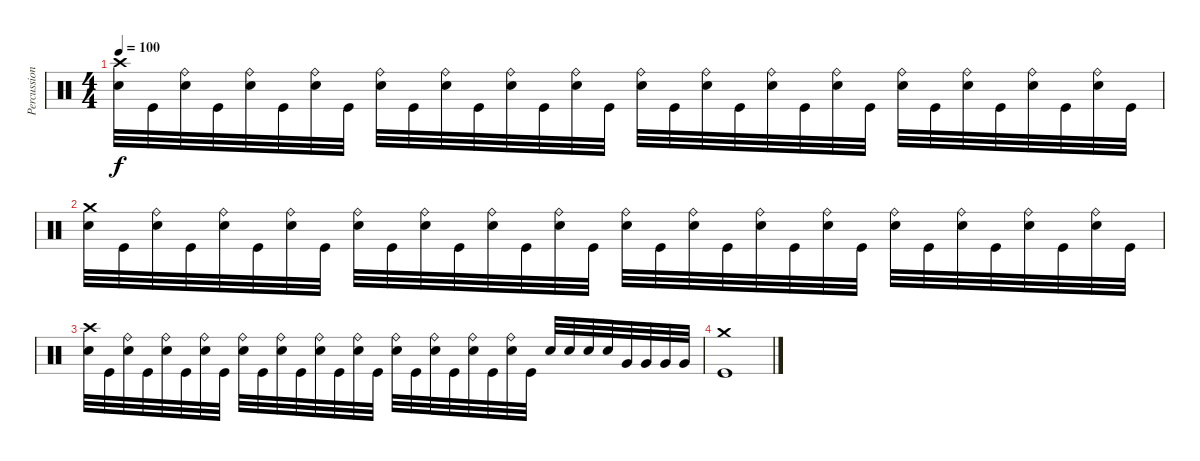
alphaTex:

\track ("Percussion" "Percussion") {instrument percussion}
\staff {score}
\articulation defaults
\ts (4 4)
\tempo 100
\clef neutral
\ks c
("Crash high (hit)" "Electric Snare (hit)").32{dy f} "Kick (hit)".32 ("Ride (bell)" "Electric Snare (hit)").32 "Kick (hit)".32 ("Ride (bell)" "Electric Snare (hit)").32 "Kick (hit)".32 ("Ride (bell)" "Electric Snare (hit)").32 "Kick (hit)".32 ("Ride (bell)" "Electric Snare (hit)").32 "Kick (hit)".32 ("Ride (bell)" "Electric Snare (hit)").32 "Kick (hit)".32 ("Ride (bell)" "Electric Snare (hit)").32 "Kick (hit)".32 ("Ride (bell)" "Electric Snare (hit)").32 "Kick (hit)".32 ("Ride (bell)" "Electric Snare (hit)").32 "Kick (hit)".32 ("Ride (bell)" "Electric Snare (hit)").32 "Kick (hit)".32 ("Ride (bell)" "Electric Snare (hit)").32 "Kick (hit)".32 ("Ride (bell)" "Electric Snare (hit)").32 "Kick (hit)".32 ("Ride (bell)" "Electric Snare (hit)").32 "Kick (hit)".32 ("Ride (bell)" "Electric Snare (hit)").32 "Kick (hit)".32 ("Ride (bell)" "Electric Snare (hit)").32 "Kick (hit)".32 ("Ride (bell)" "Electric Snare (hit)").32 "Kick (hit)".32 |
("Crash medium (hit)" "Electric Snare (hit)").32 "Kick (hit)".32 ("Ride (bell)" "Electric Snare (hit)").32 "Kick (hit)".32 ("Ride (bell)" "Electric Snare (hit)").32 "Kick (hit)".32 ("Ride (bell)" "Electric Snare (hit)").32 "Kick (hit)".32 ("Ride (bell)" "Electric Snare (hit)").32 "Kick (hit)".32 ("Ride (bell)" "Electric Snare (hit)").32 "Kick (hit)".32 ("Ride (bell)" "Electric Snare (hit)").32 "Kick (hit)".32 ("Ride (bell)" "Electric Snare (hit)").32 "Kick (hit)".32 ("Ride (bell)" "Electric Snare (hit)").32 "Kick (hit)".32 ("Ride (bell)" "Electric Snare (hit)").32 "Kick (hit)".32 ("Ride (bell)" "Electric Snare (hit)").32 "Kick (hit)".32 ("Ride (bell)" "Electric Snare (hit)").32 "Kick (hit)".32 ("Ride (bell)" "Electric Snare (hit)").32 "Kick (hit)".32 ("Ride (bell)" "Electric Snare (hit)").32 "Kick (hit)".32 ("Ride (bell)" "Electric Snare (hit)").32 "Kick (hit)".32 ("Ride (bell)" "Electric Snare (hit)").32 "Kick (hit)".32 |
("Crash high (hit)" "Electric Snare (hit)").32 "Kick (hit)".32 ("Ride (bell)" "Electric Snare (hit)").32 "Kick (hit)".32 ("Ride (bell)" "Electric Snare (hit)").32 "Kick (hit)".32 ("Ride (bell)" "Electric Snare (hit)").32 "Kick (hit)".32 ("Ride (bell)" "Electric Snare (hit)").32 "Kick (hit)".32 ("Ride (bell)" "Electric Snare (hit)").32 "Kick (hit)".32 ("Ride (bell)" "Electric Snare (hit)").32 "Kick (hit)".32 ("Ride (bell)" "Electric Snare (hit)").32 "Kick (hit)".32 ("Ride (bell)" "Electric Snare (hit)").32 "Kick (hit)".32 ("Ride (bell)" "Electric Snare (hit)").32 "Kick (hit)".32 ("Ride (bell)" "Electric Snare (hit)").32 "Kick (hit)".32 ("Ride (bell)" "Electric Snare (hit)").32 "Kick (hit)".32 "Electric Snare (hit)".32 "Electric Snare (hit)".32 "Electric Snare (hit)".32 "Electric Snare (hit)".32 "Very Low Tom (hit)".32 "Very Low Tom (hit)".32 "Very Low Tom (hit)".32 "Very Low Tom (hit)".32 |
("Crash medium (hit)" "Kick (hit)").1
